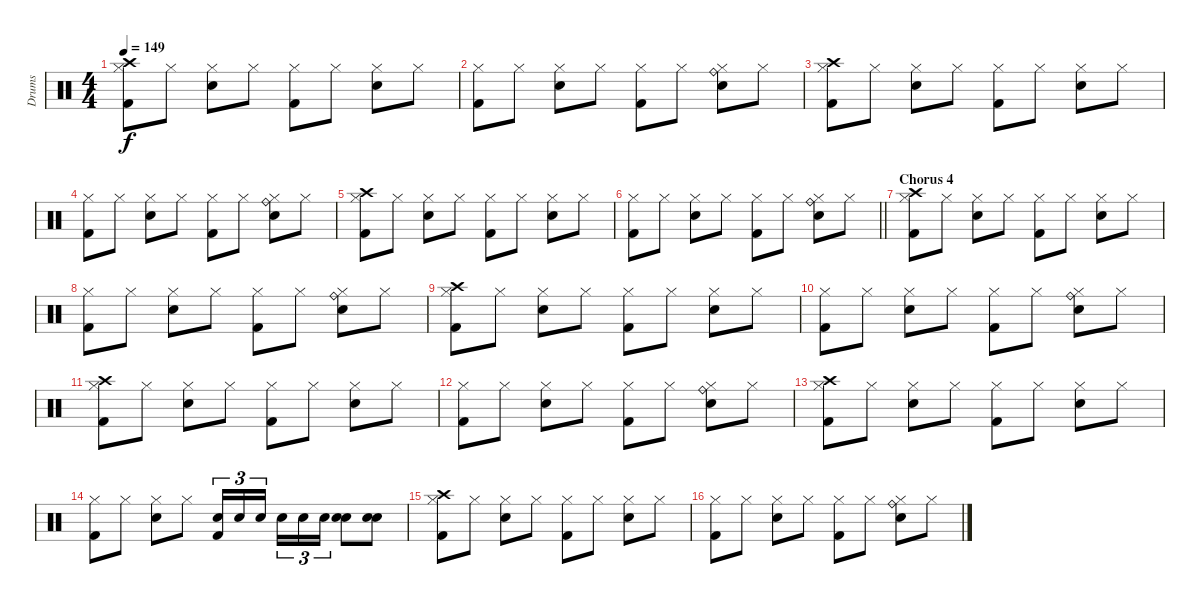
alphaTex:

\track ("Drums" "Drums") {instrument percussion}
\staff {score}
\articulation defaults
\ts (4 4)
\tempo 149
\clef neutral
\ks c
("Hi-Hat (closed)" "Crash high (hit)" "Kick (hit) 2").8{dy f} "Hi-Hat (closed)".8 ("Hi-Hat (closed)" "Electric Snare (hit)").8 "Hi-Hat (closed)".8 ("Hi-Hat (closed)" "Kick (hit) 2").8 "Hi-Hat (closed)".8 ("Hi-Hat (closed)" "Electric Snare (hit)").8 "Hi-Hat (closed)".8 |
("Hi-Hat (closed)" "Kick (hit) 2").8 "Hi-Hat (closed)".8 ("Hi-Hat (closed)" "Electric Snare (hit)").8 "Hi-Hat (closed)".8 ("Hi-Hat (closed)" "Kick (hit) 2").8 "Hi-Hat (closed)".8 ("Ride (bell)" "Hi-Hat (closed)" "Electric Snare (hit)").8 "Hi-Hat (closed)".8 |
("Hi-Hat (closed)" "Crash high (hit)" "Kick (hit) 2").8 "Hi-Hat (closed)".8 ("Hi-Hat (closed)" "Electric Snare (hit)").8 "Hi-Hat (closed)".8 ("Hi-Hat (closed)" "Kick (hit) 2").8 "Hi-Hat (closed)".8 ("Hi-Hat (closed)" "Electric Snare (hit)").8 "Hi-Hat (closed)".8 |
("Hi-Hat (closed)" "Kick (hit) 2").8 "Hi-Hat (closed)".8 ("Hi-Hat (closed)" "Electric Snare (hit)").8 "Hi-Hat (closed)".8 ("Hi-Hat (closed)" "Kick (hit) 2").8 "Hi-Hat (closed)".8 ("Ride (bell)" "Hi-Hat (closed)" "Electric Snare (hit)").8 "Hi-Hat (closed)".8 |
("Hi-Hat (closed)" "Crash high (hit)" "Kick (hit) 2").8 "Hi-Hat (closed)".8 ("Hi-Hat (closed)" "Electric Snare (hit)").8 "Hi-Hat (closed)".8 ("Hi-Hat (closed)" "Kick (hit) 2").8 "Hi-Hat (closed)".8 ("Hi-Hat (closed)" "Electric Snare (hit)").8 "Hi-Hat (closed)".8 |
\barLineRight lightlight
("Hi-Hat (closed)" "Kick (hit) 2").8 "Hi-Hat (closed)".8 ("Hi-Hat (closed)" "Electric Snare (hit)").8 "Hi-Hat (closed)".8 ("Hi-Hat (closed)" "Kick (hit) 2").8 "Hi-Hat (closed)".8 ("Ride (bell)" "Hi-Hat (closed)" "Electric Snare (hit)").8 "Hi-Hat (closed)".8 |
\section ("" "Chorus 4")
("Hi-Hat (closed)" "Crash high (hit)" "Kick (hit) 2").8 "Hi-Hat (closed)".8 ("Hi-Hat (closed)" "Electric Snare (hit)").8 "Hi-Hat (closed)".8 ("Hi-Hat (closed)" "Kick (hit) 2").8 "Hi-Hat (closed)".8 ("Hi-Hat (closed)" "Electric Snare (hit)").8 "Hi-Hat (closed)".8 |
("Hi-Hat (closed)" "Kick (hit) 2").8 "Hi-Hat (closed)".8 ("Hi-Hat (closed)" "Electric Snare (hit)").8 "Hi-Hat (closed)".8 ("Hi-Hat (closed)" "Kick (hit) 2").8 "Hi-Hat (closed)".8 ("Ride (bell)" "Hi-Hat (closed)" "Electric Snare (hit)").8 "Hi-Hat (closed)".8 |
("Hi-Hat (closed)" "Crash high (hit)" "Kick (hit) 2").8 "Hi-Hat (closed)".8 ("Hi-Hat (closed)" "Electric Snare (hit)").8 "Hi-Hat (closed)".8 ("Hi-Hat (closed)" "Kick (hit) 2").8 "Hi-Hat (closed)".8 ("Hi-Hat (closed)" "Electric Snare (hit)").8 "Hi-Hat (closed)".8 |
("Hi-Hat (closed)" "Kick (hit) 2").8 "Hi-Hat (closed)".8 ("Hi-Hat (closed)" "Electric Snare (hit)").8 "Hi-Hat (closed)".8 ("Hi-Hat (closed)" "Kick (hit) 2").8 "Hi-Hat (closed)".8 ("Ride (bell)" "Hi-Hat (closed)" "Electric Snare (hit)").8 "Hi-Hat (closed)".8 |
("Hi-Hat (closed)" "Crash high (hit)" "Kick (hit) 2").8 "Hi-Hat (closed)".8 ("Hi-Hat (closed)" "Electric Snare (hit)").8 "Hi-Hat (closed)".8 ("Hi-Hat (closed)" "Kick (hit) 2").8 "Hi-Hat (closed)".8 ("Hi-Hat (closed)" "Electric Snare (hit)").8 "Hi-Hat (closed)".8 |
("Hi-Hat (closed)" "Kick (hit) 2").8 "Hi-Hat (closed)".8 ("Hi-Hat (closed)" "Electric Snare (hit)").8 "Hi-Hat (closed)".8 ("Hi-Hat (closed)" "Kick (hit) 2").8 "Hi-Hat (closed)".8 ("Ride (bell)" "Hi-Hat (closed)" "Electric Snare (hit)").8 "Hi-Hat (closed)".8 |
("Hi-Hat (closed)" "Crash high (hit)" "Kick (hit) 2").8 "Hi-Hat (closed)".8 ("Hi-Hat (closed)" "Electric Snare (hit)").8 "Hi-Hat (closed)".8 ("Hi-Hat (closed)" "Kick (hit) 2").8 "Hi-Hat (closed)".8 ("Hi-Hat (closed)" "Electric Snare (hit)").8 "Hi-Hat (closed)".8 |
("Hi-Hat (closed)" "Kick (hit) 2").8 "Hi-Hat (closed)".8 ("Hi-Hat (closed)" "Electric Snare (hit)").8 "Hi-Hat (closed)".8 ("Electric Snare (hit)" "Kick (hit) 2").16{tu (3 2)} "Electric Snare (hit)".16{tu (3 2)} "Electric Snare (hit)".16{tu (3 2) beam splitsecondary} "Electric Snare (hit)".16{tu (3 2)} "Electric Snare (hit)".16{tu (3 2)} "Electric Snare (hit)".16{tu (3 2)} ("Electric Snare (hit)" "Electric Snare (hit)").8 ("Electric Snare (hit)" "Electric Snare (hit)").8 |
("Hi-Hat (closed)" "Crash high (hit)" "Kick (hit) 2").8 "Hi-Hat (closed)".8 ("Hi-Hat (closed)" "Electric Snare (hit)").8 "Hi-Hat (closed)".8 ("Hi-Hat (closed)" "Kick (hit) 2").8 "Hi-Hat (closed)".8 ("Hi-Hat (closed)" "Electric Snare (hit)").8 "Hi-Hat (closed)".8 |
("Hi-Hat (closed)" "Kick (hit) 2").8 "Hi-Hat (closed)".8 ("Hi-Hat (closed)" "Electric Snare (hit)").8 "Hi-Hat (closed)".8 ("Hi-Hat (closed)" "Kick (hit) 2").8 "Hi-Hat (closed)".8 ("Ride (bell)" "Hi-Hat (closed)" "Electric Snare (hit)").8 "Hi-Hat (closed)".8
